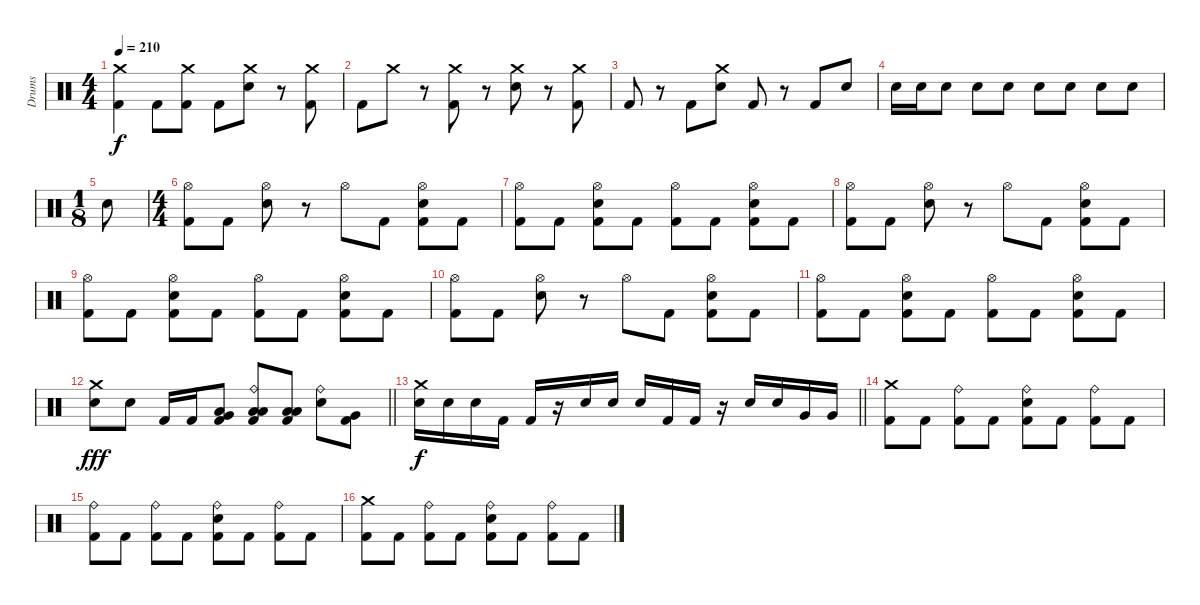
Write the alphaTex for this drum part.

\track ("Drums" "Drums") {instrument percussion}
\staff {score}
\articulation defaults
\ts (4 4)
\tempo 210
\clef neutral
\ks c
("Crash medium (hit)" "Kick (hit) 2").4{dy f} "Kick (hit) 2".8 ("Crash medium (hit)" "Kick (hit) 2").8 "Kick (hit) 2".8 ("Crash medium (hit)" "Electric Snare (hit)").8 r.8 ("Crash medium (hit)" "Kick (hit) 2").8 |
"Kick (hit) 2".8 "Crash medium (hit)".8 r.8 ("Crash medium (hit)" "Kick (hit) 2").8 r.8 ("Crash medium (hit)" "Electric Snare (hit)").8 r.8 ("Crash medium (hit)" "Kick (hit) 2").8 |
"Kick (hit) 2".8 r.8 "Kick (hit) 2".8 ("Crash medium (hit)" "Electric Snare (hit)").8 "Kick (hit) 2".8 r.8 "Kick (hit) 2".8 "Electric Snare (hit)".8 |
"Electric Snare (hit)".16 "Electric Snare (hit)".16 "Electric Snare (hit)".8 "Electric Snare (hit)".8 "Electric Snare (hit)".8 "Electric Snare (hit)".8 "Electric Snare (hit)".8 "Electric Snare (hit)".8 "Electric Snare (hit)".8 |
\ts (1 8)
"Electric Snare (hit)".8 |
\ts (4 4)
("Hi-Hat (open)" "Kick (hit) 2").8 "Kick (hit) 2".8 ("Hi-Hat (open)" "Electric Snare (hit)").8 r.8 "Hi-Hat (open)".8 "Kick (hit) 2".8 ("Hi-Hat (open)" "Electric Snare (hit)" "Kick (hit) 2").8 "Kick (hit) 2".8 |
("Hi-Hat (open)" "Kick (hit) 2").8 "Kick (hit) 2".8 ("Hi-Hat (open)" "Electric Snare (hit)" "Kick (hit) 2").8 "Kick (hit) 2".8 ("Hi-Hat (open)" "Kick (hit) 2").8 "Kick (hit) 2".8 ("Hi-Hat (open)" "Electric Snare (hit)" "Kick (hit) 2").8 "Kick (hit) 2".8 |
("Hi-Hat (open)" "Kick (hit) 2").8 "Kick (hit) 2".8 ("Hi-Hat (open)" "Electric Snare (hit)").8 r.8 "Hi-Hat (open)".8 "Kick (hit) 2".8 ("Hi-Hat (open)" "Electric Snare (hit)" "Kick (hit) 2").8 "Kick (hit) 2".8 |
("Hi-Hat (open)" "Kick (hit) 2").8 "Kick (hit) 2".8 ("Hi-Hat (open)" "Electric Snare (hit)" "Kick (hit) 2").8 "Kick (hit) 2".8 ("Hi-Hat (open)" "Kick (hit) 2").8 "Kick (hit) 2".8 ("Hi-Hat (open)" "Electric Snare (hit)" "Kick (hit) 2").8 "Kick (hit) 2".8 |
("Hi-Hat (open)" "Kick (hit) 2").8 "Kick (hit) 2".8 ("Hi-Hat (open)" "Electric Snare (hit)").8 r.8 "Hi-Hat (open)".8 "Kick (hit) 2".8 ("Hi-Hat (open)" "Electric Snare (hit)" "Kick (hit) 2").8 "Kick (hit) 2".8 |
("Hi-Hat (open)" "Kick (hit) 2").8 "Kick (hit) 2".8 ("Hi-Hat (open)" "Electric Snare (hit)" "Kick (hit) 2").8 "Kick (hit) 2".8 ("Hi-Hat (open)" "Kick (hit) 2").8 "Kick (hit) 2".8 ("Hi-Hat (open)" "Electric Snare (hit)" "Kick (hit) 2").8 "Kick (hit) 2".8 |
\barLineRight lightlight
("Crash medium (hit)" "Electric Snare (hit)").8{dy fff} "Electric Snare (hit)".8 "Kick (hit) 2".16 "Kick (hit) 2".16 ("Very Low Tom (hit)" "Low Floor Tom (hit)" "Kick (hit) 2").8 ("Ride (bell)" "Low Tom (hit)" "Low Floor Tom (hit)" "Kick (hit) 2").8 ("Low Floor Tom (hit)" "Low Floor Tom (hit)" "Kick (hit) 2").8 ("Ride (bell)" "Electric Snare (hit)").8 ("Very Low Tom (hit)" "Kick (hit) 2").8 |
\barLineRight lightlight
("Crash medium (hit)" "Electric Snare (hit)").16{dy f} "Electric Snare (hit)".16 "Electric Snare (hit)".16 "Kick (hit) 2".16 "Kick (hit) 2".16 r.16 "Electric Snare (hit)".16 "Electric Snare (hit)".16 "Electric Snare (hit)".16 "Kick (hit) 2".16 "Kick (hit) 2".16 r.16 "Electric Snare (hit)".16 "Electric Snare (hit)".16 "Very Low Tom (hit)".16 "Very Low Tom (hit)".16 |
("Crash medium (hit)" "Kick (hit) 2").8 "Kick (hit) 2".8 ("Ride (bell)" "Kick (hit) 2").8 "Kick (hit) 2".8 ("Ride (bell)" "Electric Snare (hit)" "Kick (hit) 2").8 "Kick (hit) 2".8 ("Ride (bell)" "Kick (hit) 2").8 "Kick (hit) 2".8 |
("Ride (bell)" "Kick (hit) 2").8 "Kick (hit) 2".8 ("Ride (bell)" "Kick (hit) 2").8 "Kick (hit) 2".8 ("Ride (bell)" "Electric Snare (hit)" "Kick (hit) 2").8 "Kick (hit) 2".8 ("Ride (bell)" "Kick (hit) 2").8 "Kick (hit) 2".8 |
("Crash medium (hit)" "Kick (hit) 2").8 "Kick (hit) 2".8 ("Ride (bell)" "Kick (hit) 2").8 "Kick (hit) 2".8 ("Ride (bell)" "Electric Snare (hit)" "Kick (hit) 2").8 "Kick (hit) 2".8 ("Ride (bell)" "Kick (hit) 2").8 "Kick (hit) 2".8
